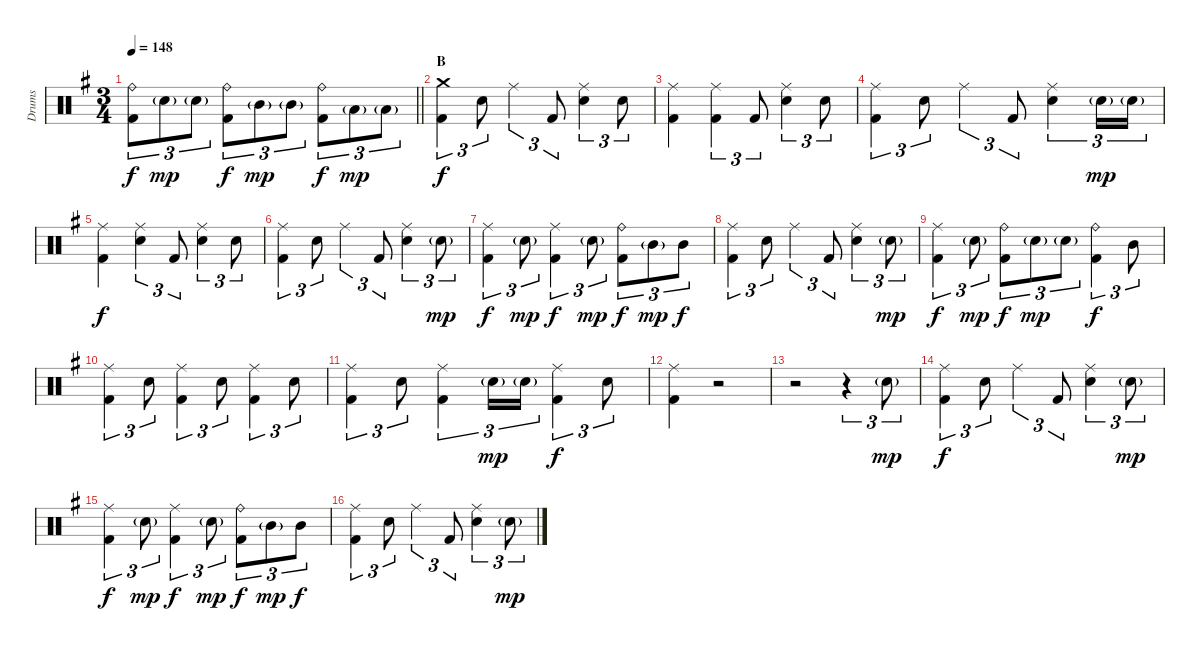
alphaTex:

\track ("Drums" "Drums") {instrument percussion}
\staff {score}
\articulation defaults
\ts (3 4)
\tempo 148
\clef neutral
\barLineRight lightlight
\ks g
("Ride (bell)" "Kick (hit) 2").8{tu (3 2) dy f} "Electric Snare (hit)"{g}.8{tu (3 2) dy mp} "Electric Snare (hit)"{g}.8{tu (3 2)} ("Ride (bell)" "Kick (hit) 2").8{tu (3 2) dy f} "Mid Tom (hit)"{g}.8{tu (3 2) dy mp} "Mid Tom (hit)"{g}.8{tu (3 2)} ("Ride (bell)" "Kick (hit) 2").8{tu (3 2) dy f} "Low Tom (hit)"{g}.8{tu (3 2) dy mp} "Low Tom (hit)"{g}.8{tu (3 2)} |
\section ("" "B")
("Crash medium (hit)" "Kick (hit) 2").4{tu (3 2) dy f} "Electric Snare (hit)".8{tu (3 2)} "Ride (middle)".4{tu (3 2)} "Kick (hit) 2".8{tu (3 2)} ("Electric Snare (hit)" "Ride (middle)").4{tu (3 2)} "Electric Snare (hit)".8{tu (3 2)} |
("Kick (hit) 2" "Ride (middle)").4 ("Kick (hit) 2" "Ride (middle)").4{tu (3 2)} "Kick (hit) 2".8{tu (3 2)} ("Electric Snare (hit)" "Ride (middle)").4{tu (3 2)} "Electric Snare (hit)".8{tu (3 2)} |
("Ride (middle)" "Kick (hit) 2").4{tu (3 2)} "Electric Snare (hit)".8{tu (3 2)} "Ride (middle)".4{tu (3 2)} "Kick (hit) 2".8{tu (3 2)} ("Electric Snare (hit)" "Ride (middle)").4{tu (3 2)} "Electric Snare (hit)"{g}.16{tu (3 2) dy mp} "Electric Snare (hit)"{g}.16{tu (3 2)} |
("Ride (middle)" "Kick (hit) 2").4{dy f} ("Ride (middle)" "Electric Snare (hit)").4{tu (3 2)} "Kick (hit) 2".8{tu (3 2)} ("Electric Snare (hit)" "Ride (middle)").4{tu (3 2)} "Electric Snare (hit)".8{tu (3 2)} |
("Ride (middle)" "Kick (hit) 2").4{tu (3 2)} "Electric Snare (hit)".8{tu (3 2)} "Ride (middle)".4{tu (3 2)} "Kick (hit) 2".8{tu (3 2)} ("Ride (middle)" "Electric Snare (hit)").4{tu (3 2)} "Electric Snare (hit)"{g}.8{tu (3 2) dy mp} |
("Ride (middle)" "Kick (hit) 2").4{tu (3 2) dy f} "Electric Snare (hit)"{g}.8{tu (3 2) dy mp} ("Ride (middle)" "Kick (hit) 2").4{tu (3 2) dy f} "Electric Snare (hit)"{g}.8{tu (3 2) dy mp} ("Ride (bell)" "Kick (hit) 2").8{tu (3 2) dy f} "Mid Tom (hit)"{g}.8{tu (3 2) dy mp} "Mid Tom (hit)".8{tu (3 2) dy f} |
("Ride (middle)" "Kick (hit) 2").4{tu (3 2)} "Electric Snare (hit)".8{tu (3 2)} "Ride (middle)".4{tu (3 2)} "Kick (hit) 2".8{tu (3 2)} ("Ride (middle)" "Electric Snare (hit)").4{tu (3 2)} "Electric Snare (hit)"{g}.8{tu (3 2) dy mp} |
("Ride (middle)" "Kick (hit) 2").4{tu (3 2) dy f} "Electric Snare (hit)"{g}.8{tu (3 2) dy mp} ("Ride (bell)" "Kick (hit) 2").8{tu (3 2) dy f} "Electric Snare (hit)"{g}.8{tu (3 2) dy mp} "Electric Snare (hit)"{g}.8{tu (3 2)} ("Ride (bell)" "Kick (hit) 2").4{tu (3 2) dy f} "Mid Tom (hit)".8{tu (3 2)} |
("Kick (hit) 2" "Ride (middle)").4{tu (3 2)} "Electric Snare (hit)".8{tu (3 2)} ("Kick (hit) 2" "Ride (middle)").4{tu (3 2)} "Electric Snare (hit)".8{tu (3 2)} ("Kick (hit) 2" "Ride (middle)").4{tu (3 2)} "Electric Snare (hit)".8{tu (3 2)} |
("Kick (hit) 2" "Ride (middle)").4{tu (3 2)} "Electric Snare (hit)".8{tu (3 2)} ("Kick (hit) 2" "Ride (middle)").4{tu (3 2)} "Electric Snare (hit)"{g}.16{tu (3 2) dy mp} "Electric Snare (hit)"{g}.16{tu (3 2)} ("Kick (hit) 2" "Ride (middle)").4{tu (3 2) dy f} "Electric Snare (hit)".8{tu (3 2)} |
("Ride (middle)" "Kick (hit) 2").4 r.2 |
r.2 r.4{tu (3 2)} "Electric Snare (hit)"{g}.8{tu (3 2) dy mp} |
("Ride (middle)" "Kick (hit) 2").4{tu (3 2) dy f} "Electric Snare (hit)".8{tu (3 2)} "Ride (middle)".4{tu (3 2)} "Kick (hit) 2".8{tu (3 2)} ("Ride (middle)" "Electric Snare (hit)").4{tu (3 2)} "Electric Snare (hit)"{g}.8{tu (3 2) dy mp} |
("Ride (middle)" "Kick (hit) 2").4{tu (3 2) dy f} "Electric Snare (hit)"{g}.8{tu (3 2) dy mp} ("Ride (middle)" "Kick (hit) 2").4{tu (3 2) dy f} "Electric Snare (hit)"{g}.8{tu (3 2) dy mp} ("Ride (bell)" "Kick (hit) 2").8{tu (3 2) dy f} "Mid Tom (hit)"{g}.8{tu (3 2) dy mp} "Mid Tom (hit)".8{tu (3 2) dy f} |
("Ride (middle)" "Kick (hit) 2").4{tu (3 2)} "Electric Snare (hit)".8{tu (3 2)} "Ride (middle)".4{tu (3 2)} "Kick (hit) 2".8{tu (3 2)} ("Ride (middle)" "Electric Snare (hit)").4{tu (3 2)} "Electric Snare (hit)"{g}.8{tu (3 2) dy mp}
